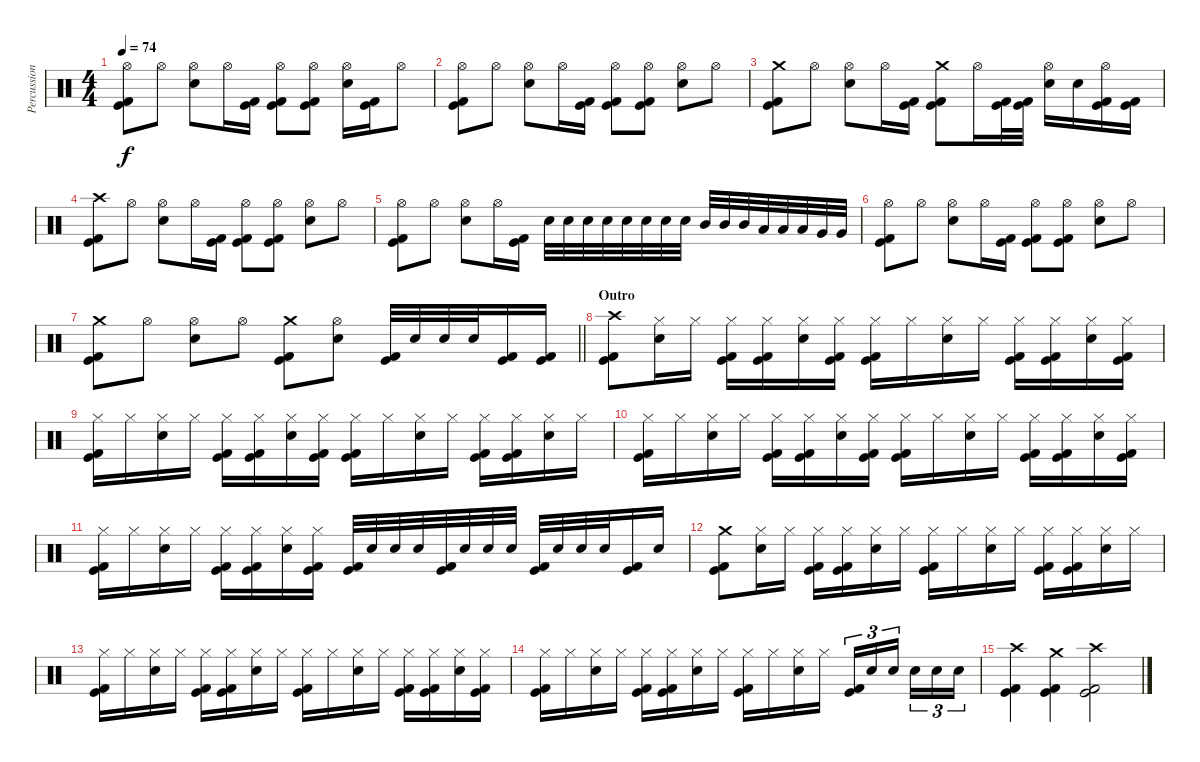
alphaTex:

\track ("Percussion" "Percussion") {instrument percussion}
\staff {score}
\articulation defaults
\ts (4 4)
\tempo 74
\clef neutral
\ks c
("Hi-Hat (open)" "Kick (hit)" "Kick (hit) 2").8{dy f} "Hi-Hat (open)".8 ("Hi-Hat (open)" "Electric Snare (hit)").8 "Hi-Hat (open)".16 ("Kick (hit)" "Kick (hit) 2").16 ("Hi-Hat (open)" "Kick (hit)" "Kick (hit) 2").8 ("Hi-Hat (open)" "Kick (hit)" "Kick (hit) 2").8 ("Hi-Hat (open)" "Electric Snare (hit)").16 ("Kick (hit)" "Kick (hit) 2").16 "Hi-Hat (open)".8 |
("Hi-Hat (open)" "Kick (hit)" "Kick (hit) 2").8 "Hi-Hat (open)".8 ("Hi-Hat (open)" "Electric Snare (hit)").8 "Hi-Hat (open)".16 ("Kick (hit)" "Kick (hit) 2").16 ("Hi-Hat (open)" "Kick (hit)" "Kick (hit) 2").8 ("Hi-Hat (open)" "Kick (hit)" "Kick (hit) 2").8 ("Hi-Hat (open)" "Electric Snare (hit)").8 "Hi-Hat (open)".8 |
("Crash medium (hit)" "Kick (hit)" "Kick (hit) 2").8 "Hi-Hat (open)".8 ("Hi-Hat (open)" "Electric Snare (hit)").8 "Hi-Hat (open)".16 ("Kick (hit)" "Kick (hit) 2").16 ("Crash medium (hit)" "Kick (hit)" "Kick (hit) 2").8 "Hi-Hat (open)".16 ("Kick (hit)" "Kick (hit) 2").32 ("Kick (hit)" "Kick (hit) 2").32 ("Hi-Hat (open)" "Electric Snare (hit)").16 "Electric Snare (hit)".16 ("Hi-Hat (open)" "Kick (hit)" "Kick (hit) 2").16 ("Kick (hit)" "Kick (hit) 2").16 |
("Crash high (hit)" "Kick (hit)" "Kick (hit) 2").8 "Hi-Hat (open)".8 ("Hi-Hat (open)" "Electric Snare (hit)").8 "Hi-Hat (open)".16 ("Kick (hit)" "Kick (hit) 2").16 ("Hi-Hat (open)" "Kick (hit)" "Kick (hit) 2").8 ("Hi-Hat (open)" "Kick (hit)" "Kick (hit) 2").8 ("Hi-Hat (open)" "Electric Snare (hit)").8 "Hi-Hat (open)".8 |
("Hi-Hat (open)" "Kick (hit)" "Kick (hit) 2").8 "Hi-Hat (open)".8 ("Hi-Hat (open)" "Electric Snare (hit)").8 "Hi-Hat (open)".16 ("Kick (hit)" "Kick (hit) 2").16 "Electric Snare (hit)".32 "Electric Snare (hit)".32 "Electric Snare (hit)".32 "Electric Snare (hit)".32 "Electric Snare (hit)".32 "Electric Snare (hit)".32 "Electric Snare (hit)".32 "Electric Snare (hit)".32 "Mid Tom (hit)".32 "Mid Tom (hit)".32 "Mid Tom (hit)".32 "Low Tom (hit)".32 "Low Tom (hit)".32 "Low Tom (hit)".32 "Very Low Tom (hit)".32 "Very Low Tom (hit)".32 |
("Hi-Hat (open)" "Kick (hit)" "Kick (hit) 2").8 "Hi-Hat (open)".8 ("Hi-Hat (open)" "Electric Snare (hit)").8 "Hi-Hat (open)".16 ("Kick (hit)" "Kick (hit) 2").16 ("Hi-Hat (open)" "Kick (hit)" "Kick (hit) 2").8 ("Hi-Hat (open)" "Kick (hit)" "Kick (hit) 2").8 ("Hi-Hat (open)" "Electric Snare (hit)").8 "Hi-Hat (open)".8 |
\barLineRight lightlight
("Crash medium (hit)" "Kick (hit)" "Kick (hit) 2").8 "Hi-Hat (open)".8 ("Hi-Hat (open)" "Electric Snare (hit)").8 "Hi-Hat (open)".8 ("Crash medium (hit)" "Kick (hit)" "Kick (hit) 2").8 ("Hi-Hat (open)" "Electric Snare (hit)").8 ("Kick (hit)" "Kick (hit) 2").32 "Electric Snare (hit)".32 "Electric Snare (hit)".32 "Electric Snare (hit)".32 ("Kick (hit)" "Kick (hit) 2").16 ("Kick (hit)" "Kick (hit) 2").16 |
\section ("" "Outro")
("Crash high (hit)" "Kick (hit)" "Kick (hit) 2").8 ("Hi-Hat (closed)" "Electric Snare (hit)").16 "Hi-Hat (closed)".16 ("Hi-Hat (closed)" "Kick (hit)" "Kick (hit) 2").16 ("Hi-Hat (closed)" "Kick (hit)" "Kick (hit) 2").16 ("Hi-Hat (closed)" "Electric Snare (hit)").16 ("Hi-Hat (closed)" "Kick (hit)" "Kick (hit) 2").16 ("Hi-Hat (closed)" "Kick (hit)" "Kick (hit) 2").16 "Hi-Hat (closed)".16 ("Hi-Hat (closed)" "Electric Snare (hit)").16 "Hi-Hat (closed)".16 ("Hi-Hat (closed)" "Kick (hit)" "Kick (hit) 2").16 ("Hi-Hat (closed)" "Kick (hit)" "Kick (hit) 2").16 ("Hi-Hat (closed)" "Electric Snare (hit)").16 ("Hi-Hat (closed)" "Kick (hit)" "Kick (hit) 2").16 |
("Hi-Hat (closed)" "Kick (hit)" "Kick (hit) 2").16 "Hi-Hat (closed)".16 ("Hi-Hat (closed)" "Electric Snare (hit)").16 "Hi-Hat (closed)".16 ("Hi-Hat (closed)" "Kick (hit)" "Kick (hit) 2").16 ("Hi-Hat (closed)" "Kick (hit)" "Kick (hit) 2").16 ("Hi-Hat (closed)" "Electric Snare (hit)").16 ("Hi-Hat (closed)" "Kick (hit)" "Kick (hit) 2").16 ("Hi-Hat (closed)" "Kick (hit)" "Kick (hit) 2").16 "Hi-Hat (closed)".16 ("Hi-Hat (closed)" "Electric Snare (hit)").16 "Hi-Hat (closed)".16 ("Hi-Hat (closed)" "Kick (hit)" "Kick (hit) 2").16 ("Hi-Hat (closed)" "Kick (hit)" "Kick (hit) 2").16 ("Hi-Hat (closed)" "Electric Snare (hit)").16 "Hi-Hat (closed)".16 |
("Hi-Hat (closed)" "Kick (hit)" "Kick (hit) 2").16 "Hi-Hat (closed)".16 ("Hi-Hat (closed)" "Electric Snare (hit)").16 "Hi-Hat (closed)".16 ("Hi-Hat (closed)" "Kick (hit)" "Kick (hit) 2").16 ("Hi-Hat (closed)" "Kick (hit)" "Kick (hit) 2").16 ("Hi-Hat (closed)" "Electric Snare (hit)").16 ("Hi-Hat (closed)" "Kick (hit)" "Kick (hit) 2").16 ("Hi-Hat (closed)" "Kick (hit)" "Kick (hit) 2").16 "Hi-Hat (closed)".16 ("Hi-Hat (closed)" "Electric Snare (hit)").16 "Hi-Hat (closed)".16 ("Hi-Hat (closed)" "Kick (hit)" "Kick (hit) 2").16 ("Hi-Hat (closed)" "Kick (hit)" "Kick (hit) 2").16 ("Hi-Hat (closed)" "Electric Snare (hit)").16 ("Hi-Hat (closed)" "Kick (hit)" "Kick (hit) 2").16 |
("Hi-Hat (closed)" "Kick (hit)" "Kick (hit) 2").16 "Hi-Hat (closed)".16 ("Hi-Hat (closed)" "Electric Snare (hit)").16 "Hi-Hat (closed)".16 ("Hi-Hat (closed)" "Kick (hit)" "Kick (hit) 2").16 ("Hi-Hat (closed)" "Kick (hit)" "Kick (hit) 2").16 ("Hi-Hat (closed)" "Electric Snare (hit)").16 ("Hi-Hat (closed)" "Kick (hit)" "Kick (hit) 2").16 ("Kick (hit)" "Kick (hit) 2").32 "Electric Snare (hit)".32 "Electric Snare (hit)".32 "Electric Snare (hit)".32 ("Kick (hit)" "Kick (hit) 2").32 "Electric Snare (hit)".32 "Electric Snare (hit)".32 "Electric Snare (hit)".32 ("Kick (hit)" "Kick (hit) 2").32 "Electric Snare (hit)".32 "Electric Snare (hit)".32 "Electric Snare (hit)".32 ("Kick (hit)" "Kick (hit) 2").16 "Electric Snare (hit)".16 |
("Crash medium (hit)" "Kick (hit)" "Kick (hit) 2").8 ("Hi-Hat (closed)" "Electric Snare (hit)").16 "Hi-Hat (closed)".16 ("Hi-Hat (closed)" "Kick (hit)" "Kick (hit) 2").16 ("Hi-Hat (closed)" "Kick (hit)" "Kick (hit) 2").16 ("Hi-Hat (closed)" "Electric Snare (hit)").16 "Hi-Hat (closed)".16 ("Hi-Hat (closed)" "Kick (hit)" "Kick (hit) 2").16 "Hi-Hat (closed)".16 ("Hi-Hat (closed)" "Electric Snare (hit)").16 "Hi-Hat (closed)".16 ("Hi-Hat (closed)" "Kick (hit)" "Kick (hit) 2").16 ("Hi-Hat (closed)" "Kick (hit)" "Kick (hit) 2").16 ("Hi-Hat (closed)" "Electric Snare (hit)").16 "Hi-Hat (closed)".16 |
("Hi-Hat (closed)" "Kick (hit)" "Kick (hit) 2").16 "Hi-Hat (closed)".16 ("Hi-Hat (closed)" "Electric Snare (hit)").16 "Hi-Hat (closed)".16 ("Hi-Hat (closed)" "Kick (hit)" "Kick (hit) 2").16 ("Hi-Hat (closed)" "Kick (hit)" "Kick (hit) 2").16 ("Hi-Hat (closed)" "Electric Snare (hit)").16 "Hi-Hat (closed)".16 ("Hi-Hat (closed)" "Kick (hit)" "Kick (hit) 2").16 "Hi-Hat (closed)".16 ("Hi-Hat (closed)" "Electric Snare (hit)").16 "Hi-Hat (closed)".16 ("Hi-Hat (closed)" "Kick (hit)" "Kick (hit) 2").16 ("Hi-Hat (closed)" "Kick (hit)" "Kick (hit) 2").16 ("Hi-Hat (closed)" "Electric Snare (hit)").16 ("Hi-Hat (closed)" "Kick (hit)" "Kick (hit) 2").16 |
("Hi-Hat (closed)" "Kick (hit)" "Kick (hit) 2").16 "Hi-Hat (closed)".16 ("Hi-Hat (closed)" "Electric Snare (hit)").16 "Hi-Hat (closed)".16 ("Hi-Hat (closed)" "Kick (hit)" "Kick (hit) 2").16 ("Hi-Hat (closed)" "Kick (hit)" "Kick (hit) 2").16 ("Hi-Hat (closed)" "Electric Snare (hit)").16 "Hi-Hat (closed)".16 ("Hi-Hat (closed)" "Kick (hit)" "Kick (hit) 2").16 "Hi-Hat (closed)".16 ("Hi-Hat (closed)" "Electric Snare (hit)").16 "Hi-Hat (closed)".16 ("Kick (hit)" "Kick (hit) 2").16{tu (3 2)} "Electric Snare (hit)".16{tu (3 2)} "Electric Snare (hit)".16{tu (3 2) beam splitsecondary} "Electric Snare (hit)".16{tu (3 2)} "Electric Snare (hit)".16{tu (3 2)} "Electric Snare (hit)".16{tu (3 2)} |
("Crash high (hit)" "Kick (hit)" "Kick (hit) 2").4 ("Crash medium (hit)" "Kick (hit)" "Kick (hit) 2").4 ("Crash high (hit)" "Kick (hit)" "Kick (hit) 2").2
